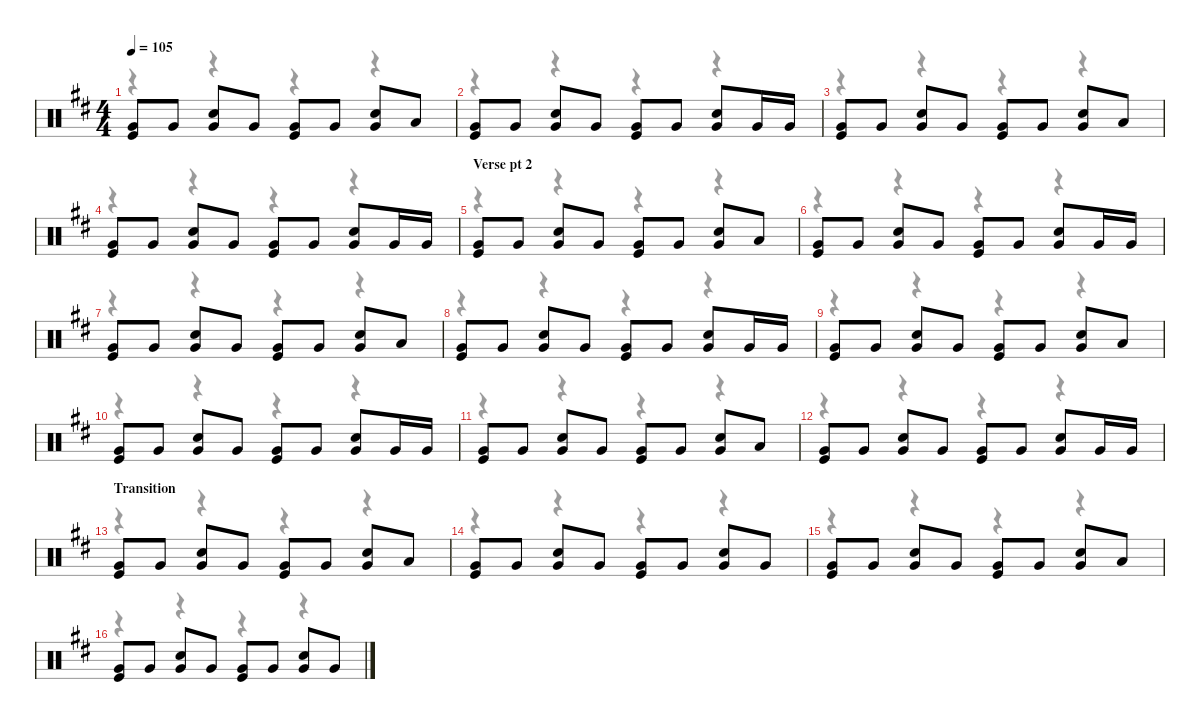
\defaultSystemsLayout 4
\hideDynamics
\bracketExtendMode nobrackets
\singleTrackTrackNamePolicy hidden
\multiTrackTrackNamePolicy hidden
\firstSystemTrackNameMode fullname
\firstSystemTrackNameOrientation horizontal
\otherSystemsTrackNameOrientation horizontal
\track ("Drums" "drm.") {instrument percussion}
\staff {score}
\articulation defaults
\voice
\ts (4 4)
\tempo 105
\clef neutral
\ks bminor
("Very Low Tom (hit)"{acc forcenatural} "Kick (hit)"{acc forcenatural}).8{dy mp beam Up} "Very Low Tom (hit)"{acc forcenatural}.8{beam Up} ("Very Low Tom (hit)"{acc forcenatural} "Snare (hit) 2"{acc forcenatural}).8{beam Up} "Very Low Tom (hit)"{acc forcenatural}.8{beam Up} ("Very Low Tom (hit)"{acc forcenatural} "Kick (hit)"{acc forcenatural}).8{beam Up} "Very Low Tom (hit)"{acc forcenatural}.8{beam Up} ("Very Low Tom (hit)"{acc forcenatural} "Snare (hit) 2"{acc forcenatural}).8{beam Up} "Low Tom (hit)"{acc forcenatural}.8{beam Up} |
("Very Low Tom (hit)"{acc forcenatural} "Kick (hit)"{acc forcenatural}).8{beam Up} "Very Low Tom (hit)"{acc forcenatural}.8{beam Up} ("Very Low Tom (hit)"{acc forcenatural} "Snare (hit) 2"{acc forcenatural}).8{beam Up} "Very Low Tom (hit)"{acc forcenatural}.8{beam Up} ("Very Low Tom (hit)"{acc forcenatural} "Kick (hit)"{acc forcenatural}).8{beam Up} "Very Low Tom (hit)"{acc forcenatural}.8{beam Up} ("Very Low Tom (hit)"{acc forcenatural} "Snare (hit) 2"{acc forcenatural}).8{beam Up} "Very Low Tom (hit)"{acc forcenatural}.16{beam Up} "Very Low Tom (hit)"{acc forcenatural}.16{beam Up} |
("Very Low Tom (hit)"{acc forcenatural} "Kick (hit)"{acc forcenatural}).8{beam Up} "Very Low Tom (hit)"{acc forcenatural}.8{beam Up} ("Very Low Tom (hit)"{acc forcenatural} "Snare (hit) 2"{acc forcenatural}).8{beam Up} "Very Low Tom (hit)"{acc forcenatural}.8{beam Up} ("Very Low Tom (hit)"{acc forcenatural} "Kick (hit)"{acc forcenatural}).8{beam Up} "Very Low Tom (hit)"{acc forcenatural}.8{beam Up} ("Very Low Tom (hit)"{acc forcenatural} "Snare (hit) 2"{acc forcenatural}).8{beam Up} "Low Tom (hit)"{acc forcenatural}.8{beam Up} |
("Very Low Tom (hit)"{acc forcenatural} "Kick (hit)"{acc forcenatural}).8{beam Up} "Very Low Tom (hit)"{acc forcenatural}.8{beam Up} ("Very Low Tom (hit)"{acc forcenatural} "Snare (hit) 2"{acc forcenatural}).8{beam Up} "Very Low Tom (hit)"{acc forcenatural}.8{beam Up} ("Very Low Tom (hit)"{acc forcenatural} "Kick (hit)"{acc forcenatural}).8{beam Up} "Very Low Tom (hit)"{acc forcenatural}.8{beam Up} ("Very Low Tom (hit)"{acc forcenatural} "Snare (hit) 2"{acc forcenatural}).8{beam Up} "Very Low Tom (hit)"{acc forcenatural}.16{beam Up} "Very Low Tom (hit)"{acc forcenatural}.16{beam Up} |
\section ("" "Verse pt 2")
("Very Low Tom (hit)"{acc forcenatural} "Kick (hit)"{acc forcenatural}).8{beam Up} "Very Low Tom (hit)"{acc forcenatural}.8{beam Up} ("Very Low Tom (hit)"{acc forcenatural} "Snare (hit) 2"{acc forcenatural}).8{beam Up} "Very Low Tom (hit)"{acc forcenatural}.8{beam Up} ("Very Low Tom (hit)"{acc forcenatural} "Kick (hit)"{acc forcenatural}).8{beam Up} "Very Low Tom (hit)"{acc forcenatural}.8{beam Up} ("Very Low Tom (hit)"{acc forcenatural} "Snare (hit) 2"{acc forcenatural}).8{beam Up} "Low Tom (hit)"{acc forcenatural}.8{beam Up} |
("Very Low Tom (hit)"{acc forcenatural} "Kick (hit)"{acc forcenatural}).8{beam Up} "Very Low Tom (hit)"{acc forcenatural}.8{beam Up} ("Very Low Tom (hit)"{acc forcenatural} "Snare (hit) 2"{acc forcenatural}).8{beam Up} "Very Low Tom (hit)"{acc forcenatural}.8{beam Up} ("Very Low Tom (hit)"{acc forcenatural} "Kick (hit)"{acc forcenatural}).8{beam Up} "Very Low Tom (hit)"{acc forcenatural}.8{beam Up} ("Very Low Tom (hit)"{acc forcenatural} "Snare (hit) 2"{acc forcenatural}).8{beam Up} "Very Low Tom (hit)"{acc forcenatural}.16{beam Up} "Very Low Tom (hit)"{acc forcenatural}.16{beam Up} |
("Very Low Tom (hit)"{acc forcenatural} "Kick (hit)"{acc forcenatural}).8{beam Up} "Very Low Tom (hit)"{acc forcenatural}.8{beam Up} ("Very Low Tom (hit)"{acc forcenatural} "Snare (hit) 2"{acc forcenatural}).8{beam Up} "Very Low Tom (hit)"{acc forcenatural}.8{beam Up} ("Very Low Tom (hit)"{acc forcenatural} "Kick (hit)"{acc forcenatural}).8{beam Up} "Very Low Tom (hit)"{acc forcenatural}.8{beam Up} ("Very Low Tom (hit)"{acc forcenatural} "Snare (hit) 2"{acc forcenatural}).8{beam Up} "Low Tom (hit)"{acc forcenatural}.8{beam Up} |
("Very Low Tom (hit)"{acc forcenatural} "Kick (hit)"{acc forcenatural}).8{beam Up} "Very Low Tom (hit)"{acc forcenatural}.8{beam Up} ("Very Low Tom (hit)"{acc forcenatural} "Snare (hit) 2"{acc forcenatural}).8{beam Up} "Very Low Tom (hit)"{acc forcenatural}.8{beam Up} ("Very Low Tom (hit)"{acc forcenatural} "Kick (hit)"{acc forcenatural}).8{beam Up} "Very Low Tom (hit)"{acc forcenatural}.8{beam Up} ("Very Low Tom (hit)"{acc forcenatural} "Snare (hit) 2"{acc forcenatural}).8{beam Up} "Very Low Tom (hit)"{acc forcenatural}.16{beam Up} "Very Low Tom (hit)"{acc forcenatural}.16{beam Up} |
("Very Low Tom (hit)"{acc forcenatural} "Kick (hit)"{acc forcenatural}).8{beam Up} "Very Low Tom (hit)"{acc forcenatural}.8{beam Up} ("Very Low Tom (hit)"{acc forcenatural} "Snare (hit) 2"{acc forcenatural}).8{beam Up} "Very Low Tom (hit)"{acc forcenatural}.8{beam Up} ("Very Low Tom (hit)"{acc forcenatural} "Kick (hit)"{acc forcenatural}).8{beam Up} "Very Low Tom (hit)"{acc forcenatural}.8{beam Up} ("Very Low Tom (hit)"{acc forcenatural} "Snare (hit) 2"{acc forcenatural}).8{beam Up} "Low Tom (hit)"{acc forcenatural}.8{beam Up} |
("Very Low Tom (hit)"{acc forcenatural} "Kick (hit)"{acc forcenatural}).8{beam Up} "Very Low Tom (hit)"{acc forcenatural}.8{beam Up} ("Very Low Tom (hit)"{acc forcenatural} "Snare (hit) 2"{acc forcenatural}).8{beam Up} "Very Low Tom (hit)"{acc forcenatural}.8{beam Up} ("Very Low Tom (hit)"{acc forcenatural} "Kick (hit)"{acc forcenatural}).8{beam Up} "Very Low Tom (hit)"{acc forcenatural}.8{beam Up} ("Very Low Tom (hit)"{acc forcenatural} "Snare (hit) 2"{acc forcenatural}).8{beam Up} "Very Low Tom (hit)"{acc forcenatural}.16{beam Up} "Very Low Tom (hit)"{acc forcenatural}.16{beam Up} |
("Very Low Tom (hit)"{acc forcenatural} "Kick (hit)"{acc forcenatural}).8{beam Up} "Very Low Tom (hit)"{acc forcenatural}.8{beam Up} ("Very Low Tom (hit)"{acc forcenatural} "Snare (hit) 2"{acc forcenatural}).8{beam Up} "Very Low Tom (hit)"{acc forcenatural}.8{beam Up} ("Very Low Tom (hit)"{acc forcenatural} "Kick (hit)"{acc forcenatural}).8{beam Up} "Very Low Tom (hit)"{acc forcenatural}.8{beam Up} ("Very Low Tom (hit)"{acc forcenatural} "Snare (hit) 2"{acc forcenatural}).8{beam Up} "Low Tom (hit)"{acc forcenatural}.8{beam Up} |
("Very Low Tom (hit)"{acc forcenatural} "Kick (hit)"{acc forcenatural}).8{beam Up} "Very Low Tom (hit)"{acc forcenatural}.8{beam Up} ("Very Low Tom (hit)"{acc forcenatural} "Snare (hit) 2"{acc forcenatural}).8{beam Up} "Very Low Tom (hit)"{acc forcenatural}.8{beam Up} ("Very Low Tom (hit)"{acc forcenatural} "Kick (hit)"{acc forcenatural}).8{beam Up} "Very Low Tom (hit)"{acc forcenatural}.8{beam Up} ("Very Low Tom (hit)"{acc forcenatural} "Snare (hit) 2"{acc forcenatural}).8{beam Up} "Very Low Tom (hit)"{acc forcenatural}.16{beam Up} "Very Low Tom (hit)"{acc forcenatural}.16{beam Up} |
\section ("" "Transition")
("Very Low Tom (hit)"{acc forcenatural} "Kick (hit)"{acc forcenatural}).8{beam Up} "Very Low Tom (hit)"{acc forcenatural}.8{beam Up} ("Very Low Tom (hit)"{acc forcenatural} "Snare (hit) 2"{acc forcenatural}).8{beam Up} "Very Low Tom (hit)"{acc forcenatural}.8{beam Up} ("Very Low Tom (hit)"{acc forcenatural} "Kick (hit)"{acc forcenatural}).8{beam Up} "Very Low Tom (hit)"{acc forcenatural}.8{beam Up} ("Very Low Tom (hit)"{acc forcenatural} "Snare (hit) 2"{acc forcenatural}).8{beam Up} "Low Tom (hit)"{acc forcenatural}.8{beam Up} |
("Very Low Tom (hit)"{acc forcenatural} "Kick (hit)"{acc forcenatural}).8{beam Up} "Very Low Tom (hit)"{acc forcenatural}.8{beam Up} ("Very Low Tom (hit)"{acc forcenatural} "Snare (hit) 2"{acc forcenatural}).8{beam Up} "Very Low Tom (hit)"{acc forcenatural}.8{beam Up} ("Very Low Tom (hit)"{acc forcenatural} "Kick (hit)"{acc forcenatural}).8{beam Up} "Very Low Tom (hit)"{acc forcenatural}.8{beam Up} ("Very Low Tom (hit)"{acc forcenatural} "Snare (hit) 2"{acc forcenatural}).8{beam Up} "Very Low Tom (hit)"{acc forcenatural}.8{beam Up} |
("Very Low Tom (hit)"{acc forcenatural} "Kick (hit)"{acc forcenatural}).8{beam Up} "Very Low Tom (hit)"{acc forcenatural}.8{beam Up} ("Very Low Tom (hit)"{acc forcenatural} "Snare (hit) 2"{acc forcenatural}).8{beam Up} "Very Low Tom (hit)"{acc forcenatural}.8{beam Up} ("Very Low Tom (hit)"{acc forcenatural} "Kick (hit)"{acc forcenatural}).8{beam Up} "Very Low Tom (hit)"{acc forcenatural}.8{beam Up} ("Very Low Tom (hit)"{acc forcenatural} "Snare (hit) 2"{acc forcenatural}).8{beam Up} "Low Tom (hit)"{acc forcenatural}.8{beam Up} |
("Very Low Tom (hit)"{acc forcenatural} "Kick (hit)"{acc forcenatural}).8{beam Up} "Very Low Tom (hit)"{acc forcenatural}.8{beam Up} ("Very Low Tom (hit)"{acc forcenatural} "Snare (hit) 2"{acc forcenatural}).8{beam Up} "Very Low Tom (hit)"{acc forcenatural}.8{beam Up} ("Very Low Tom (hit)"{acc forcenatural} "Kick (hit)"{acc forcenatural}).8{beam Up} "Very Low Tom (hit)"{acc forcenatural}.8{beam Up} ("Very Low Tom (hit)"{acc forcenatural} "Snare (hit) 2"{acc forcenatural}).8{beam Up} "Very Low Tom (hit)"{acc forcenatural}.8{beam Up}
\voice
\clef neutral
\ottava regular
\simile none
\ks bminor
r.4{dy mf beam Down} r.4{beam Down} r.4{beam Down} r.4{beam Down} |
r.4{beam Down} r.4{beam Down} r.4{beam Down} r.4{beam Down} |
r.4{beam Down} r.4{beam Down} r.4{beam Down} r.4{beam Down} |
r.4{beam Down} r.4{beam Down} r.4{beam Down} r.4{beam Down} |
r.4{beam Down} r.4{beam Down} r.4{beam Down} r.4{beam Down} |
r.4{beam Down} r.4{beam Down} r.4{beam Down} r.4{beam Down} |
r.4{beam Down} r.4{beam Down} r.4{beam Down} r.4{beam Down} |
r.4{beam Down} r.4{beam Down} r.4{beam Down} r.4{beam Down} |
r.4{beam Down} r.4{beam Down} r.4{beam Down} r.4{beam Down} |
r.4{beam Down} r.4{beam Down} r.4{beam Down} r.4{beam Down} |
r.4{beam Down} r.4{beam Down} r.4{beam Down} r.4{beam Down} |
r.4{beam Down} r.4{beam Down} r.4{beam Down} r.4{beam Down} |
r.4{beam Down} r.4{beam Down} r.4{beam Down} r.4{beam Down} |
r.4{beam Down} r.4{beam Down} r.4{beam Down} r.4{beam Down} |
r.4{beam Down} r.4{beam Down} r.4{beam Down} r.4{beam Down} |
r.4{beam Down} r.4{beam Down} r.4{beam Down} r.4{beam Down}
